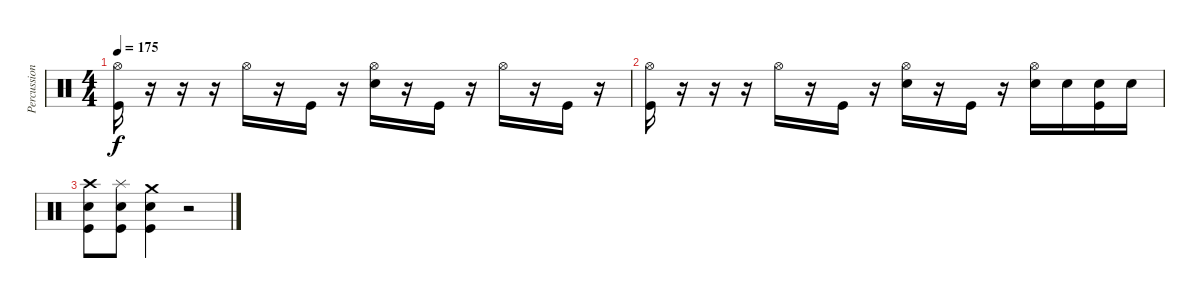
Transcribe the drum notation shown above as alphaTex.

\track ("Percussions" "Percussion") {instrument percussion}
\staff {score}
\articulation defaults
\ts (4 4)
\tempo 175
\clef neutral
\ks c
("Hi-Hat (open)" "Kick (hit)").16{dy f} r.16 r.16 r.16 "Hi-Hat (open)".16 r.16 "Kick (hit)".16 r.16 ("Hi-Hat (open)" "Electric Snare (hit)").16 r.16 "Kick (hit)".16 r.16 "Hi-Hat (open)".16 r.16 "Kick (hit)".16 r.16 |
("Hi-Hat (open)" "Kick (hit)").16 r.16 r.16 r.16 "Hi-Hat (open)".16 r.16 "Kick (hit)".16 r.16 ("Hi-Hat (open)" "Electric Snare (hit)").16 r.16 "Kick (hit)".16 r.16 ("Hi-Hat (open)" "Electric Snare (hit)").16 "Electric Snare (hit)".16 ("Electric Snare (hit)" "Kick (hit)").16 "Electric Snare (hit)".16 |
("Crash high (hit)" "Electric Snare (hit)" "Kick (hit)").8 ("Splash (hit)" "Electric Snare (hit)" "Kick (hit)").8 ("Crash medium (hit)" "Electric Snare (hit)" "Kick (hit)").4 r.2
